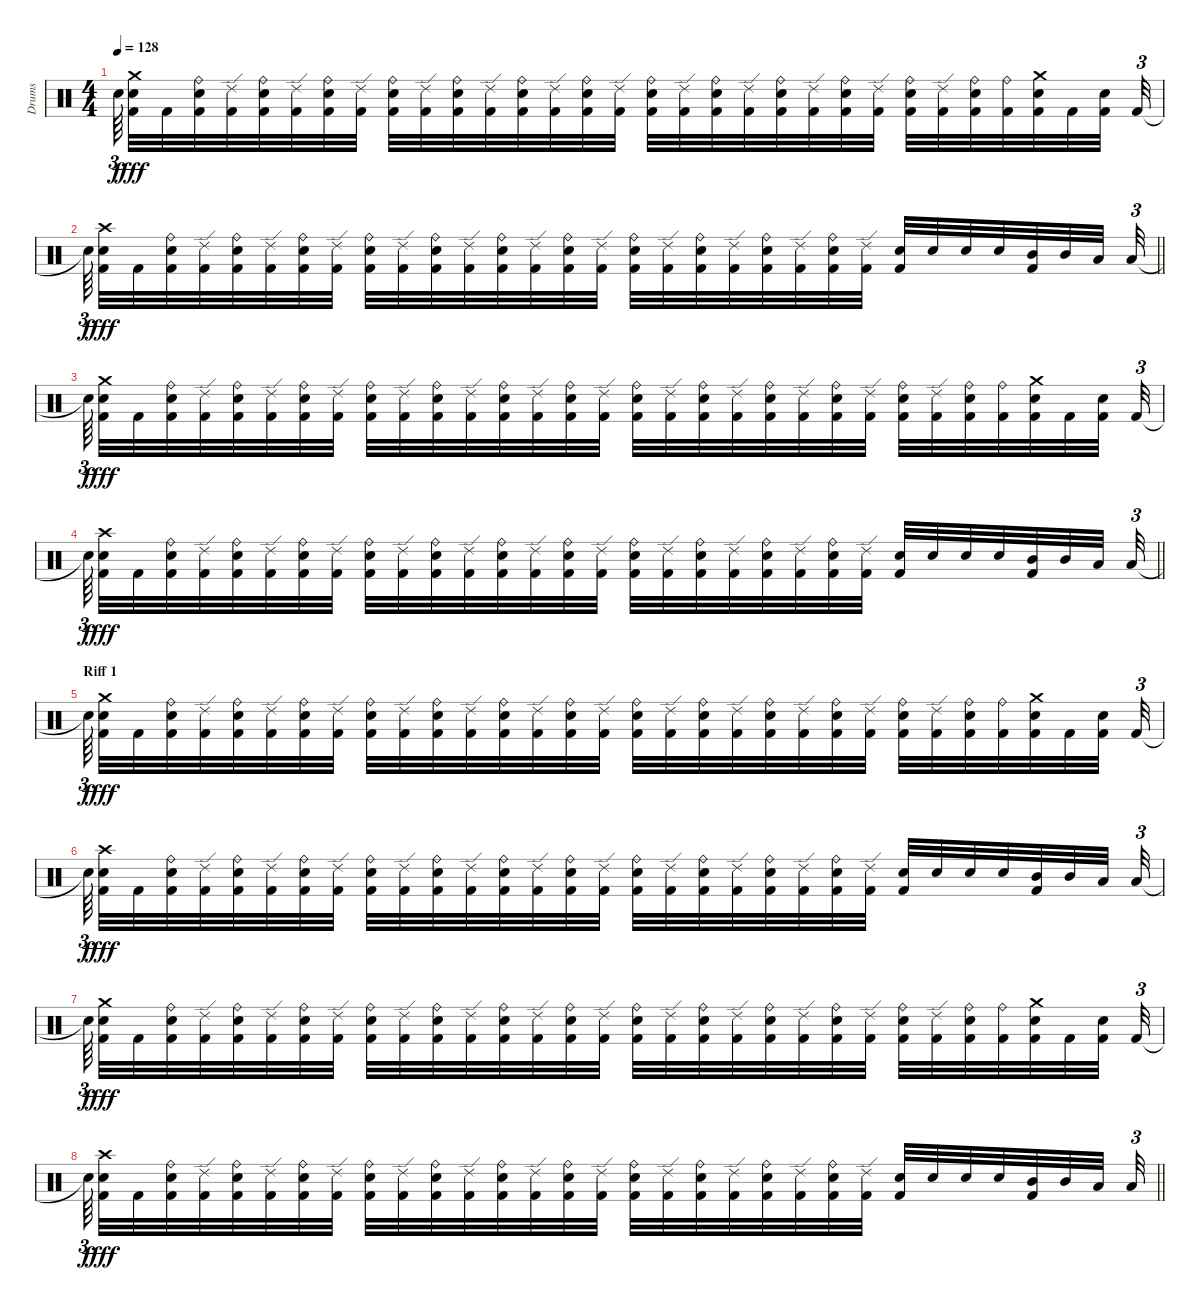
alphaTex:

\track ("Drums" "Drums") {instrument percussion}
\staff {score}
\articulation defaults
\ts (4 4)
\tempo 128
\clef neutral
\ks c "Snare (hit)"{t}.64{tu (3 2) dy f beam splitsecondary}
("Kick (hit) 2" "Snare (hit) 2" "Crash medium (hit)").32{dy fff} "Kick (hit) 2".32 ("Kick (hit) 2" "Snare (hit) 2" "Ride (bell)").32 ("Kick (hit) 2" "Ride (edge) 2").32 ("Kick (hit) 2" "Snare (hit) 2" "Ride (bell)").32 ("Kick (hit) 2" "Ride (edge) 2").32 ("Kick (hit) 2" "Snare (hit) 2" "Ride (bell)").32 ("Kick (hit) 2" "Ride (edge) 2").32 ("Kick (hit) 2" "Snare (hit) 2" "Ride (bell)").32 ("Kick (hit) 2" "Ride (edge) 2").32 ("Kick (hit) 2" "Snare (hit) 2" "Ride (bell)").32 ("Kick (hit) 2" "Ride (edge) 2").32 ("Kick (hit) 2" "Snare (hit) 2" "Ride (bell)").32 ("Kick (hit) 2" "Ride (edge) 2").32 ("Kick (hit) 2" "Snare (hit) 2" "Ride (bell)").32 ("Kick (hit) 2" "Ride (edge) 2").32 ("Kick (hit) 2" "Snare (hit) 2" "Ride (bell)").32 ("Kick (hit) 2" "Ride (edge) 2").32 ("Kick (hit) 2" "Snare (hit) 2" "Ride (bell)").32 ("Kick (hit) 2" "Ride (edge) 2").32 ("Kick (hit) 2" "Snare (hit) 2" "Ride (bell)").32 ("Kick (hit) 2" "Ride (edge) 2").32 ("Kick (hit) 2" "Snare (hit) 2" "Ride (bell)").32 ("Kick (hit) 2" "Ride (edge) 2").32 ("Kick (hit) 2" "Snare (hit) 2" "Ride (bell)").32 ("Kick (hit) 2" "Ride (edge) 2").32 ("Kick (hit) 2" "Snare (hit) 2" "Ride (bell)").32 ("Kick (hit) 2" "Ride (bell)").32 ("Kick (hit) 2" "Snare (hit) 2" "Crash medium (hit)").32 "Kick (hit) 2".32 ("Kick (hit) 2" "Snare (hit) 2").32{beam splitsecondary} "Kick (hit) 2".32{tu (3 2)} |
\barLineRight lightlight "Snare (hit)"{t}.64{tu (3 2) dy f beam splitsecondary}
("Kick (hit) 2" "Snare (hit) 2" "Crash high (hit)").32{dy fff} "Kick (hit) 2".32 ("Kick (hit) 2" "Snare (hit) 2" "Ride (bell)").32 ("Kick (hit) 2" "Ride (edge) 2").32 ("Kick (hit) 2" "Snare (hit) 2" "Ride (bell)").32 ("Kick (hit) 2" "Ride (edge) 2").32 ("Kick (hit) 2" "Snare (hit) 2" "Ride (bell)").32 ("Kick (hit) 2" "Ride (edge) 2").32 ("Kick (hit) 2" "Snare (hit) 2" "Ride (bell)").32 ("Kick (hit) 2" "Ride (edge) 2").32 ("Kick (hit) 2" "Snare (hit) 2" "Ride (bell)").32 ("Kick (hit) 2" "Ride (edge) 2").32 ("Kick (hit) 2" "Snare (hit) 2" "Ride (bell)").32 ("Kick (hit) 2" "Ride (edge) 2").32 ("Kick (hit) 2" "Snare (hit) 2" "Ride (bell)").32 ("Kick (hit) 2" "Ride (edge) 2").32 ("Kick (hit) 2" "Snare (hit) 2" "Ride (bell)").32 ("Kick (hit) 2" "Ride (edge) 2").32 ("Kick (hit) 2" "Snare (hit) 2" "Ride (bell)").32 ("Kick (hit) 2" "Ride (edge) 2").32 ("Kick (hit) 2" "Snare (hit) 2" "Ride (bell)").32 ("Kick (hit) 2" "Ride (edge) 2").32 ("Kick (hit) 2" "Snare (hit) 2" "Ride (bell)").32 ("Kick (hit) 2" "Ride (edge) 2").32 ("Kick (hit) 2" "Snare (hit) 2").32 "Snare (hit) 2".32 "Snare (hit) 2".32 "Snare (hit) 2".32 ("Kick (hit) 2" "Mid Tom (hit)").32 "Mid Tom (hit)".32 "Low Tom (hit)".32{beam splitsecondary} "Low Tom (hit)".32{tu (3 2)} |
"Snare (hit)"{t}.64{tu (3 2) dy f beam splitsecondary} ("Kick (hit) 2" "Snare (hit) 2" "Crash medium (hit)").32{dy fff} "Kick (hit) 2".32 ("Kick (hit) 2" "Snare (hit) 2" "Ride (bell)").32 ("Kick (hit) 2" "Ride (edge) 2").32 ("Kick (hit) 2" "Snare (hit) 2" "Ride (bell)").32 ("Kick (hit) 2" "Ride (edge) 2").32 ("Kick (hit) 2" "Snare (hit) 2" "Ride (bell)").32 ("Kick (hit) 2" "Ride (edge) 2").32 ("Kick (hit) 2" "Snare (hit) 2" "Ride (bell)").32 ("Kick (hit) 2" "Ride (edge) 2").32 ("Kick (hit) 2" "Snare (hit) 2" "Ride (bell)").32 ("Kick (hit) 2" "Ride (edge) 2").32 ("Kick (hit) 2" "Snare (hit) 2" "Ride (bell)").32 ("Kick (hit) 2" "Ride (edge) 2").32 ("Kick (hit) 2" "Snare (hit) 2" "Ride (bell)").32 ("Kick (hit) 2" "Ride (edge) 2").32 ("Kick (hit) 2" "Snare (hit) 2" "Ride (bell)").32 ("Kick (hit) 2" "Ride (edge) 2").32 ("Kick (hit) 2" "Snare (hit) 2" "Ride (bell)").32 ("Kick (hit) 2" "Ride (edge) 2").32 ("Kick (hit) 2" "Snare (hit) 2" "Ride (bell)").32 ("Kick (hit) 2" "Ride (edge) 2").32 ("Kick (hit) 2" "Snare (hit) 2" "Ride (bell)").32 ("Kick (hit) 2" "Ride (edge) 2").32 ("Kick (hit) 2" "Snare (hit) 2" "Ride (bell)").32 ("Kick (hit) 2" "Ride (edge) 2").32 ("Kick (hit) 2" "Snare (hit) 2" "Ride (bell)").32 ("Kick (hit) 2" "Ride (bell)").32 ("Kick (hit) 2" "Snare (hit) 2" "Crash medium (hit)").32 "Kick (hit) 2".32 ("Kick (hit) 2" "Snare (hit) 2").32{beam splitsecondary} "Kick (hit) 2".32{tu (3 2)} |
\barLineRight lightlight "Snare (hit)"{t}.64{tu (3 2) dy f beam splitsecondary}
("Kick (hit) 2" "Snare (hit) 2" "Crash high (hit)").32{dy fff} "Kick (hit) 2".32 ("Kick (hit) 2" "Snare (hit) 2" "Ride (bell)").32 ("Kick (hit) 2" "Ride (edge) 2").32 ("Kick (hit) 2" "Snare (hit) 2" "Ride (bell)").32 ("Kick (hit) 2" "Ride (edge) 2").32 ("Kick (hit) 2" "Snare (hit) 2" "Ride (bell)").32 ("Kick (hit) 2" "Ride (edge) 2").32 ("Kick (hit) 2" "Snare (hit) 2" "Ride (bell)").32 ("Kick (hit) 2" "Ride (edge) 2").32 ("Kick (hit) 2" "Snare (hit) 2" "Ride (bell)").32 ("Kick (hit) 2" "Ride (edge) 2").32 ("Kick (hit) 2" "Snare (hit) 2" "Ride (bell)").32 ("Kick (hit) 2" "Ride (edge) 2").32 ("Kick (hit) 2" "Snare (hit) 2" "Ride (bell)").32 ("Kick (hit) 2" "Ride (edge) 2").32 ("Kick (hit) 2" "Snare (hit) 2" "Ride (bell)").32 ("Kick (hit) 2" "Ride (edge) 2").32 ("Kick (hit) 2" "Snare (hit) 2" "Ride (bell)").32 ("Kick (hit) 2" "Ride (edge) 2").32 ("Kick (hit) 2" "Snare (hit) 2" "Ride (bell)").32 ("Kick (hit) 2" "Ride (edge) 2").32 ("Kick (hit) 2" "Snare (hit) 2" "Ride (bell)").32 ("Kick (hit) 2" "Ride (edge) 2").32 ("Kick (hit) 2" "Snare (hit) 2").32 "Snare (hit) 2".32 "Snare (hit) 2".32 "Snare (hit) 2".32 ("Kick (hit) 2" "Mid Tom (hit)").32 "Mid Tom (hit)".32 "Low Tom (hit)".32{beam splitsecondary} "Low Tom (hit)".32{tu (3 2)} |
\section ("" "Riff 1")
"Snare (hit)"{t}.64{tu (3 2) dy f beam splitsecondary} ("Kick (hit) 2" "Snare (hit) 2" "Crash medium (hit)").32{dy fff} "Kick (hit) 2".32 ("Kick (hit) 2" "Snare (hit) 2" "Ride (bell)").32 ("Kick (hit) 2" "Ride (edge) 2").32 ("Kick (hit) 2" "Snare (hit) 2" "Ride (bell)").32 ("Kick (hit) 2" "Ride (edge) 2").32 ("Kick (hit) 2" "Snare (hit) 2" "Ride (bell)").32 ("Kick (hit) 2" "Ride (edge) 2").32 ("Kick (hit) 2" "Snare (hit) 2" "Ride (bell)").32 ("Kick (hit) 2" "Ride (edge) 2").32 ("Kick (hit) 2" "Snare (hit) 2" "Ride (bell)").32 ("Kick (hit) 2" "Ride (edge) 2").32 ("Kick (hit) 2" "Snare (hit) 2" "Ride (bell)").32 ("Kick (hit) 2" "Ride (edge) 2").32 ("Kick (hit) 2" "Snare (hit) 2" "Ride (bell)").32 ("Kick (hit) 2" "Ride (edge) 2").32 ("Kick (hit) 2" "Snare (hit) 2" "Ride (bell)").32 ("Kick (hit) 2" "Ride (edge) 2").32 ("Kick (hit) 2" "Snare (hit) 2" "Ride (bell)").32 ("Kick (hit) 2" "Ride (edge) 2").32 ("Kick (hit) 2" "Snare (hit) 2" "Ride (bell)").32 ("Kick (hit) 2" "Ride (edge) 2").32 ("Kick (hit) 2" "Snare (hit) 2" "Ride (bell)").32 ("Kick (hit) 2" "Ride (edge) 2").32 ("Kick (hit) 2" "Snare (hit) 2" "Ride (bell)").32 ("Kick (hit) 2" "Ride (edge) 2").32 ("Kick (hit) 2" "Snare (hit) 2" "Ride (bell)").32 ("Kick (hit) 2" "Ride (bell)").32 ("Kick (hit) 2" "Snare (hit) 2" "Crash medium (hit)").32 "Kick (hit) 2".32 ("Kick (hit) 2" "Snare (hit) 2").32{beam splitsecondary} "Kick (hit) 2".32{tu (3 2)} |
"Snare (hit)"{t}.64{tu (3 2) dy f beam splitsecondary} ("Kick (hit) 2" "Snare (hit) 2" "Crash high (hit)").32{dy fff} "Kick (hit) 2".32 ("Kick (hit) 2" "Snare (hit) 2" "Ride (bell)").32 ("Kick (hit) 2" "Ride (edge) 2").32 ("Kick (hit) 2" "Snare (hit) 2" "Ride (bell)").32 ("Kick (hit) 2" "Ride (edge) 2").32 ("Kick (hit) 2" "Snare (hit) 2" "Ride (bell)").32 ("Kick (hit) 2" "Ride (edge) 2").32 ("Kick (hit) 2" "Snare (hit) 2" "Ride (bell)").32 ("Kick (hit) 2" "Ride (edge) 2").32 ("Kick (hit) 2" "Snare (hit) 2" "Ride (bell)").32 ("Kick (hit) 2" "Ride (edge) 2").32 ("Kick (hit) 2" "Snare (hit) 2" "Ride (bell)").32 ("Kick (hit) 2" "Ride (edge) 2").32 ("Kick (hit) 2" "Snare (hit) 2" "Ride (bell)").32 ("Kick (hit) 2" "Ride (edge) 2").32 ("Kick (hit) 2" "Snare (hit) 2" "Ride (bell)").32 ("Kick (hit) 2" "Ride (edge) 2").32 ("Kick (hit) 2" "Snare (hit) 2" "Ride (bell)").32 ("Kick (hit) 2" "Ride (edge) 2").32 ("Kick (hit) 2" "Snare (hit) 2" "Ride (bell)").32 ("Kick (hit) 2" "Ride (edge) 2").32 ("Kick (hit) 2" "Snare (hit) 2" "Ride (bell)").32 ("Kick (hit) 2" "Ride (edge) 2").32 ("Kick (hit) 2" "Snare (hit) 2").32 "Snare (hit) 2".32 "Snare (hit) 2".32 "Snare (hit) 2".32 ("Kick (hit) 2" "Mid Tom (hit)").32 "Mid Tom (hit)".32 "Low Tom (hit)".32{beam splitsecondary} "Low Tom (hit)".32{tu (3 2)} |
"Snare (hit)"{t}.64{tu (3 2) dy f beam splitsecondary} ("Kick (hit) 2" "Snare (hit) 2" "Crash medium (hit)").32{dy fff} "Kick (hit) 2".32 ("Kick (hit) 2" "Snare (hit) 2" "Ride (bell)").32 ("Kick (hit) 2" "Ride (edge) 2").32 ("Kick (hit) 2" "Snare (hit) 2" "Ride (bell)").32 ("Kick (hit) 2" "Ride (edge) 2").32 ("Kick (hit) 2" "Snare (hit) 2" "Ride (bell)").32 ("Kick (hit) 2" "Ride (edge) 2").32 ("Kick (hit) 2" "Snare (hit) 2" "Ride (bell)").32 ("Kick (hit) 2" "Ride (edge) 2").32 ("Kick (hit) 2" "Snare (hit) 2" "Ride (bell)").32 ("Kick (hit) 2" "Ride (edge) 2").32 ("Kick (hit) 2" "Snare (hit) 2" "Ride (bell)").32 ("Kick (hit) 2" "Ride (edge) 2").32 ("Kick (hit) 2" "Snare (hit) 2" "Ride (bell)").32 ("Kick (hit) 2" "Ride (edge) 2").32 ("Kick (hit) 2" "Snare (hit) 2" "Ride (bell)").32 ("Kick (hit) 2" "Ride (edge) 2").32 ("Kick (hit) 2" "Snare (hit) 2" "Ride (bell)").32 ("Kick (hit) 2" "Ride (edge) 2").32 ("Kick (hit) 2" "Snare (hit) 2" "Ride (bell)").32 ("Kick (hit) 2" "Ride (edge) 2").32 ("Kick (hit) 2" "Snare (hit) 2" "Ride (bell)").32 ("Kick (hit) 2" "Ride (edge) 2").32 ("Kick (hit) 2" "Snare (hit) 2" "Ride (bell)").32 ("Kick (hit) 2" "Ride (edge) 2").32 ("Kick (hit) 2" "Snare (hit) 2" "Ride (bell)").32 ("Kick (hit) 2" "Ride (bell)").32 ("Kick (hit) 2" "Snare (hit) 2" "Crash medium (hit)").32 "Kick (hit) 2".32 ("Kick (hit) 2" "Snare (hit) 2").32{beam splitsecondary} "Kick (hit) 2".32{tu (3 2)} |
\barLineRight lightlight "Snare (hit)"{t}.64{tu (3 2) dy f beam splitsecondary}
("Kick (hit) 2" "Snare (hit) 2" "Crash high (hit)").32{dy fff} "Kick (hit) 2".32 ("Kick (hit) 2" "Snare (hit) 2" "Ride (bell)").32 ("Kick (hit) 2" "Ride (edge) 2").32 ("Kick (hit) 2" "Snare (hit) 2" "Ride (bell)").32 ("Kick (hit) 2" "Ride (edge) 2").32 ("Kick (hit) 2" "Snare (hit) 2" "Ride (bell)").32 ("Kick (hit) 2" "Ride (edge) 2").32 ("Kick (hit) 2" "Snare (hit) 2" "Ride (bell)").32 ("Kick (hit) 2" "Ride (edge) 2").32 ("Kick (hit) 2" "Snare (hit) 2" "Ride (bell)").32 ("Kick (hit) 2" "Ride (edge) 2").32 ("Kick (hit) 2" "Snare (hit) 2" "Ride (bell)").32 ("Kick (hit) 2" "Ride (edge) 2").32 ("Kick (hit) 2" "Snare (hit) 2" "Ride (bell)").32 ("Kick (hit) 2" "Ride (edge) 2").32 ("Kick (hit) 2" "Snare (hit) 2" "Ride (bell)").32 ("Kick (hit) 2" "Ride (edge) 2").32 ("Kick (hit) 2" "Snare (hit) 2" "Ride (bell)").32 ("Kick (hit) 2" "Ride (edge) 2").32 ("Kick (hit) 2" "Snare (hit) 2" "Ride (bell)").32 ("Kick (hit) 2" "Ride (edge) 2").32 ("Kick (hit) 2" "Snare (hit) 2" "Ride (bell)").32 ("Kick (hit) 2" "Ride (edge) 2").32 ("Kick (hit) 2" "Snare (hit) 2").32 "Snare (hit) 2".32 "Snare (hit) 2".32 "Snare (hit) 2".32 ("Kick (hit) 2" "Mid Tom (hit)").32 "Mid Tom (hit)".32 "Low Tom (hit)".32{beam splitsecondary} "Low Tom (hit)".32{tu (3 2)}
